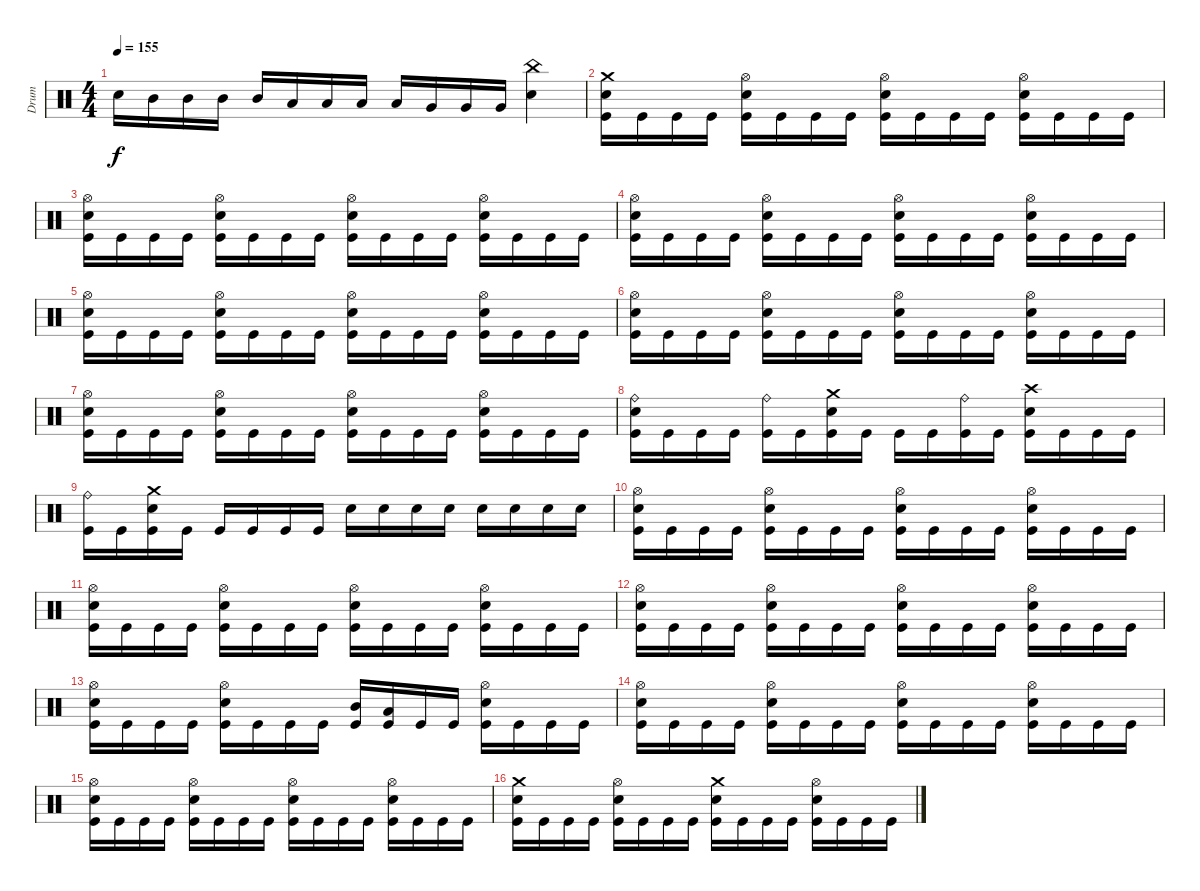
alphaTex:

\track ("Drum" "Drum") {instrument percussion}
\staff {score}
\articulation defaults
\ts (4 4)
\tempo 155
\clef neutral
\ks c "Electric Snare (hit)".16{dy f} "Mid Tom (hit)".16 "Mid Tom (hit)".16 "Mid Tom (hit)".16 "Mid Tom (hit)".16 "Low Tom (hit)".16 "Low Tom (hit)".16 "Low Tom (hit)".16 "Low Tom (hit)".16 "Very Low Tom (hit)".16 "Very Low Tom (hit)".16 "Very Low Tom (hit)".16
("Electric Snare (hit)" "China (hit)").4 |
("Kick (hit)" "Electric Snare (hit)" "Crash medium (hit)").16 "Kick (hit)".16 "Kick (hit)".16 "Kick (hit)".16 ("Kick (hit)" "Electric Snare (hit)" "Hi-Hat (open)").16 "Kick (hit)".16 "Kick (hit)".16 "Kick (hit)".16 ("Kick (hit)" "Electric Snare (hit)" "Hi-Hat (open)").16 "Kick (hit)".16 "Kick (hit)".16 "Kick (hit)".16 ("Kick (hit)" "Electric Snare (hit)" "Hi-Hat (open)").16 "Kick (hit)".16 "Kick (hit)".16 "Kick (hit)".16 |
("Kick (hit)" "Electric Snare (hit)" "Hi-Hat (open)").16 "Kick (hit)".16 "Kick (hit)".16 "Kick (hit)".16 ("Kick (hit)" "Electric Snare (hit)" "Hi-Hat (open)").16 "Kick (hit)".16 "Kick (hit)".16 "Kick (hit)".16 ("Kick (hit)" "Electric Snare (hit)" "Hi-Hat (open)").16 "Kick (hit)".16 "Kick (hit)".16 "Kick (hit)".16 ("Kick (hit)" "Electric Snare (hit)" "Hi-Hat (open)").16 "Kick (hit)".16 "Kick (hit)".16 "Kick (hit)".16 |
("Kick (hit)" "Electric Snare (hit)" "Hi-Hat (open)").16 "Kick (hit)".16 "Kick (hit)".16 "Kick (hit)".16 ("Kick (hit)" "Electric Snare (hit)" "Hi-Hat (open)").16 "Kick (hit)".16 "Kick (hit)".16 "Kick (hit)".16 ("Kick (hit)" "Electric Snare (hit)" "Hi-Hat (open)").16 "Kick (hit)".16 "Kick (hit)".16 "Kick (hit)".16 ("Kick (hit)" "Electric Snare (hit)" "Hi-Hat (open)").16 "Kick (hit)".16 "Kick (hit)".16 "Kick (hit)".16 |
("Kick (hit)" "Electric Snare (hit)" "Hi-Hat (open)").16 "Kick (hit)".16 "Kick (hit)".16 "Kick (hit)".16 ("Kick (hit)" "Electric Snare (hit)" "Hi-Hat (open)").16 "Kick (hit)".16 "Kick (hit)".16 "Kick (hit)".16 ("Kick (hit)" "Electric Snare (hit)" "Hi-Hat (open)").16 "Kick (hit)".16 "Kick (hit)".16 "Kick (hit)".16 ("Kick (hit)" "Electric Snare (hit)" "Hi-Hat (open)").16 "Kick (hit)".16 "Kick (hit)".16 "Kick (hit)".16 |
("Kick (hit)" "Electric Snare (hit)" "Hi-Hat (open)").16 "Kick (hit)".16 "Kick (hit)".16 "Kick (hit)".16 ("Kick (hit)" "Electric Snare (hit)" "Hi-Hat (open)").16 "Kick (hit)".16 "Kick (hit)".16 "Kick (hit)".16 ("Kick (hit)" "Electric Snare (hit)" "Hi-Hat (open)").16 "Kick (hit)".16 "Kick (hit)".16 "Kick (hit)".16 ("Kick (hit)" "Electric Snare (hit)" "Hi-Hat (open)").16 "Kick (hit)".16 "Kick (hit)".16 "Kick (hit)".16 |
("Kick (hit)" "Electric Snare (hit)" "Hi-Hat (open)").16 "Kick (hit)".16 "Kick (hit)".16 "Kick (hit)".16 ("Kick (hit)" "Electric Snare (hit)" "Hi-Hat (open)").16 "Kick (hit)".16 "Kick (hit)".16 "Kick (hit)".16 ("Kick (hit)" "Electric Snare (hit)" "Hi-Hat (open)").16 "Kick (hit)".16 "Kick (hit)".16 "Kick (hit)".16 ("Kick (hit)" "Electric Snare (hit)" "Hi-Hat (open)").16 "Kick (hit)".16 "Kick (hit)".16 "Kick (hit)".16 |
("Kick (hit)" "Electric Snare (hit)" "Ride (bell)").16 "Kick (hit)".16 "Kick (hit)".16 "Kick (hit)".16 ("Kick (hit)" "Ride (bell)").16 "Kick (hit)".16 ("Kick (hit)" "Electric Snare (hit)" "Crash medium (hit)").16 "Kick (hit)".16 "Kick (hit)".16 "Kick (hit)".16 ("Kick (hit)" "Ride (bell)").16 "Kick (hit)".16 ("Kick (hit)" "Electric Snare (hit)" "Crash high (hit)").16 "Kick (hit)".16 "Kick (hit)".16 "Kick (hit)".16 |
("Kick (hit)" "Ride (bell)").16 "Kick (hit)".16 ("Kick (hit)" "Electric Snare (hit)" "Crash medium (hit)").16 "Kick (hit)".16 "Kick (hit)".16 "Kick (hit)".16 "Kick (hit)".16 "Kick (hit)".16 "Electric Snare (hit)".16 "Electric Snare (hit)".16 "Electric Snare (hit)".16 "Electric Snare (hit)".16 "Electric Snare (hit)".16 "Electric Snare (hit)".16 "Electric Snare (hit)".16 "Electric Snare (hit)".16 |
("Kick (hit)" "Electric Snare (hit)" "Hi-Hat (open)").16 "Kick (hit)".16 "Kick (hit)".16 "Kick (hit)".16 ("Kick (hit)" "Electric Snare (hit)" "Hi-Hat (open)").16 "Kick (hit)".16 "Kick (hit)".16 "Kick (hit)".16 ("Kick (hit)" "Electric Snare (hit)" "Hi-Hat (open)").16 "Kick (hit)".16 "Kick (hit)".16 "Kick (hit)".16 ("Kick (hit)" "Electric Snare (hit)" "Hi-Hat (open)").16 "Kick (hit)".16 "Kick (hit)".16 "Kick (hit)".16 |
("Kick (hit)" "Electric Snare (hit)" "Hi-Hat (open)").16 "Kick (hit)".16 "Kick (hit)".16 "Kick (hit)".16 ("Kick (hit)" "Electric Snare (hit)" "Hi-Hat (open)").16 "Kick (hit)".16 "Kick (hit)".16 "Kick (hit)".16 ("Kick (hit)" "Electric Snare (hit)" "Hi-Hat (open)").16 "Kick (hit)".16 "Kick (hit)".16 "Kick (hit)".16 ("Kick (hit)" "Electric Snare (hit)" "Hi-Hat (open)").16 "Kick (hit)".16 "Kick (hit)".16 "Kick (hit)".16 |
("Kick (hit)" "Electric Snare (hit)" "Hi-Hat (open)").16 "Kick (hit)".16 "Kick (hit)".16 "Kick (hit)".16 ("Kick (hit)" "Electric Snare (hit)" "Hi-Hat (open)").16 "Kick (hit)".16 "Kick (hit)".16 "Kick (hit)".16 ("Kick (hit)" "Electric Snare (hit)" "Hi-Hat (open)").16 "Kick (hit)".16 "Kick (hit)".16 "Kick (hit)".16 ("Kick (hit)" "Electric Snare (hit)" "Hi-Hat (open)").16 "Kick (hit)".16 "Kick (hit)".16 "Kick (hit)".16 |
("Kick (hit)" "Electric Snare (hit)" "Hi-Hat (open)").16 "Kick (hit)".16 "Kick (hit)".16 "Kick (hit)".16 ("Kick (hit)" "Electric Snare (hit)" "Hi-Hat (open)").16 "Kick (hit)".16 "Kick (hit)".16 "Kick (hit)".16 ("Kick (hit)" "Mid Tom (hit)").16 ("Kick (hit)" "Low Tom (hit)").16 "Kick (hit)".16 "Kick (hit)".16 ("Kick (hit)" "Electric Snare (hit)" "Hi-Hat (open)").16 "Kick (hit)".16 "Kick (hit)".16 "Kick (hit)".16 |
("Kick (hit)" "Electric Snare (hit)" "Hi-Hat (open)").16 "Kick (hit)".16 "Kick (hit)".16 "Kick (hit)".16 ("Kick (hit)" "Electric Snare (hit)" "Hi-Hat (open)").16 "Kick (hit)".16 "Kick (hit)".16 "Kick (hit)".16 ("Kick (hit)" "Electric Snare (hit)" "Hi-Hat (open)").16 "Kick (hit)".16 "Kick (hit)".16 "Kick (hit)".16 ("Kick (hit)" "Electric Snare (hit)" "Hi-Hat (open)").16 "Kick (hit)".16 "Kick (hit)".16 "Kick (hit)".16 |
("Kick (hit)" "Electric Snare (hit)" "Hi-Hat (open)").16 "Kick (hit)".16 "Kick (hit)".16 "Kick (hit)".16 ("Kick (hit)" "Electric Snare (hit)" "Hi-Hat (open)").16 "Kick (hit)".16 "Kick (hit)".16 "Kick (hit)".16 ("Kick (hit)" "Electric Snare (hit)" "Hi-Hat (open)").16 "Kick (hit)".16 "Kick (hit)".16 "Kick (hit)".16 ("Kick (hit)" "Electric Snare (hit)" "Hi-Hat (open)").16 "Kick (hit)".16 "Kick (hit)".16 "Kick (hit)".16 |
("Kick (hit)" "Electric Snare (hit)" "Crash medium (hit)").16 "Kick (hit)".16 "Kick (hit)".16 "Kick (hit)".16 ("Kick (hit)" "Electric Snare (hit)" "Hi-Hat (open)").16 "Kick (hit)".16 "Kick (hit)".16 "Kick (hit)".16 ("Kick (hit)" "Electric Snare (hit)" "Crash medium (hit)").16 "Kick (hit)".16 "Kick (hit)".16 "Kick (hit)".16 ("Kick (hit)" "Electric Snare (hit)" "Hi-Hat (open)").16 "Kick (hit)".16 "Kick (hit)".16 "Kick (hit)".16
